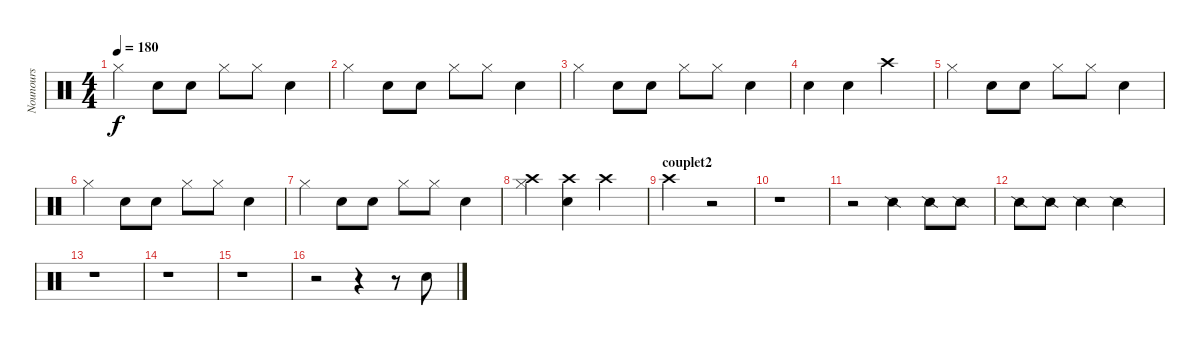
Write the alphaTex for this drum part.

\track ("Nounours" "Nounours") {instrument percussion}
\staff {score}
\articulation defaults
\ts (4 4)
\tempo 180
\clef neutral
\ks c "Hi-Hat (closed)".4{dy f} "Snare (hit) 2".8 "Snare (hit) 2".8 "Hi-Hat (closed)".8 "Hi-Hat (closed)".8 "Snare (hit) 2".4
|
"Hi-Hat (closed)".4 "Snare (hit) 2".8 "Snare (hit) 2".8 "Hi-Hat (closed)".8 "Hi-Hat (closed)".8 "Snare (hit) 2".4 |
"Hi-Hat (closed)".4 "Snare (hit) 2".8 "Snare (hit) 2".8 "Hi-Hat (closed)".8 "Hi-Hat (closed)".8 "Snare (hit) 2".4 |
"Snare (hit) 2".4 "Snare (hit) 2".4 "Crash high (hit)".2 |
"Hi-Hat (closed)".4 "Snare (hit) 2".8 "Snare (hit) 2".8 "Hi-Hat (closed)".8 "Hi-Hat (closed)".8 "Snare (hit) 2".4 |
"Hi-Hat (closed)".4 "Snare (hit) 2".8 "Snare (hit) 2".8 "Hi-Hat (closed)".8 "Hi-Hat (closed)".8 "Snare (hit) 2".4 |
"Hi-Hat (closed)".4 "Snare (hit) 2".8 "Snare (hit) 2".8 "Hi-Hat (closed)".8 "Hi-Hat (closed)".8 "Snare (hit) 2".4 |
("Crash high (hit)" "Hi-Hat (closed)").4 ("Crash high (hit)" "Snare (hit) 2").4 "Crash high (hit)".2 |
\section ("" "couplet2")
"Crash high (hit)".2 r.2 |
r.1 |
r.2 "Snare (side stick) 2".4 "Snare (side stick) 2".8 "Snare (side stick) 2".8 |
"Snare (side stick) 2".8 "Snare (side stick) 2".8 "Snare (side stick) 2".4 "Snare (side stick) 2".2 |
r.1 |
r.1 |
r.1 |
r.2 r.4 r.8 "Snare (hit) 2".8
